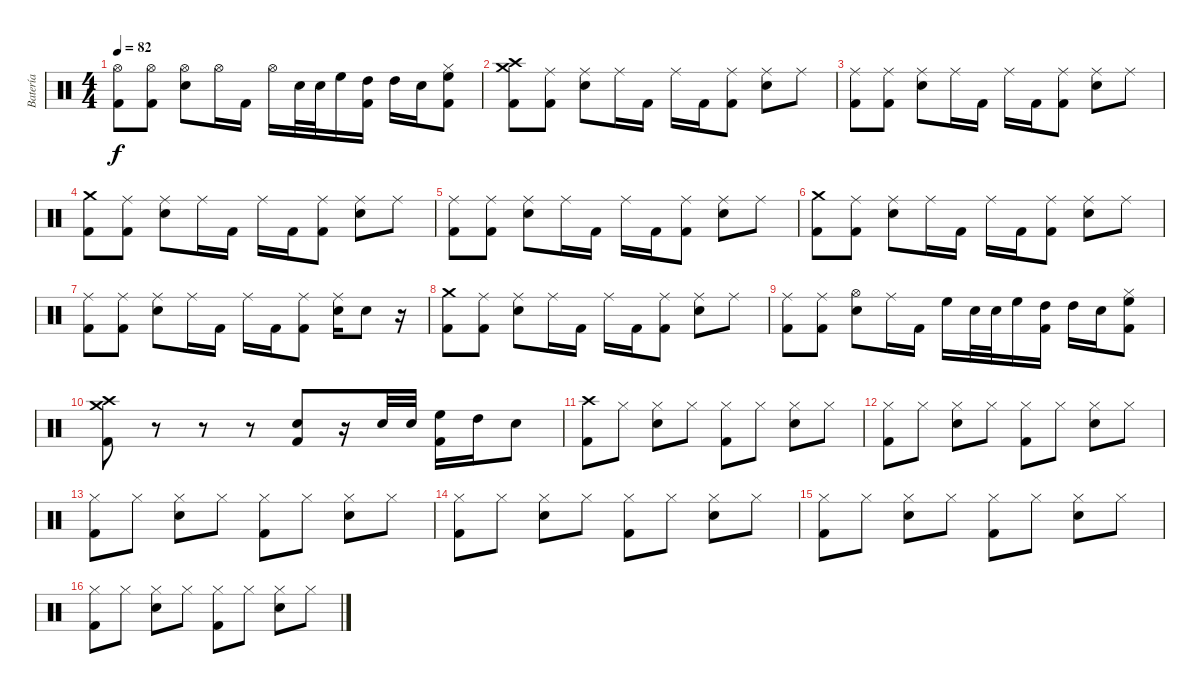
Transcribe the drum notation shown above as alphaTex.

\track ("Batería" "Batería") {instrument percussion}
\staff {score}
\articulation defaults
\ts (4 4)
\tempo 82
\clef neutral
\ks c
("Hi-Hat (open)" "Kick (hit) 2").8{dy f} ("Hi-Hat (open)" "Kick (hit) 2").8 ("Hi-Hat (open)" "Electric Snare (hit)").8 "Hi-Hat (open)".16 "Kick (hit) 2".16 "Hi-Hat (open)".16 "Electric Snare (hit)".32 "Electric Snare (hit)".32 "High Floor Tom (hit)".16 ("Kick (hit) 2" "High Tom (hit)").16 "High Tom (hit)".16 "Electric Snare (hit)".16 ("Kick (hit) 2" "High Floor Tom (hit)" "Hi-Hat (closed)").8 |
("Crash medium (hit)" "Crash high (hit)" "Kick (hit) 2").8 ("Ride (middle)" "Kick (hit) 2").8 ("Ride (middle)" "Electric Snare (hit)").8 "Ride (middle)".16 "Kick (hit) 2".16 "Ride (middle)".16 "Kick (hit) 2".16 ("Ride (middle)" "Kick (hit) 2").8 ("Ride (middle)" "Electric Snare (hit)").8 "Ride (middle)".8 |
("Ride (middle)" "Kick (hit) 2").8 ("Ride (middle)" "Kick (hit) 2").8 ("Ride (middle)" "Electric Snare (hit)").8 "Ride (middle)".16 "Kick (hit) 2".16 "Ride (middle)".16 "Kick (hit) 2".16 ("Ride (middle)" "Kick (hit) 2").8 ("Ride (middle)" "Electric Snare (hit)").8 "Ride (middle)".8 |
("Crash medium (hit)" "Kick (hit) 2").8 ("Ride (middle)" "Kick (hit) 2").8 ("Ride (middle)" "Electric Snare (hit)").8 "Ride (middle)".16 "Kick (hit) 2".16 "Ride (middle)".16 "Kick (hit) 2".16 ("Ride (middle)" "Kick (hit) 2").8 ("Ride (middle)" "Electric Snare (hit)").8 "Ride (middle)".8 |
("Ride (middle)" "Kick (hit) 2").8 ("Ride (middle)" "Kick (hit) 2").8 ("Ride (middle)" "Electric Snare (hit)").8 "Ride (middle)".16 "Kick (hit) 2".16 "Ride (middle)".16 "Kick (hit) 2".16 ("Ride (middle)" "Kick (hit) 2").8 ("Ride (middle)" "Electric Snare (hit)").8 "Ride (middle)".8 |
("Crash medium (hit)" "Kick (hit) 2").8 ("Ride (middle)" "Kick (hit) 2").8 ("Ride (middle)" "Electric Snare (hit)").8 "Ride (middle)".16 "Kick (hit) 2".16 "Ride (middle)".16 "Kick (hit) 2".16 ("Ride (middle)" "Kick (hit) 2").8 ("Ride (middle)" "Electric Snare (hit)").8 "Ride (middle)".8 |
("Ride (middle)" "Kick (hit) 2").8 ("Ride (middle)" "Kick (hit) 2").8 ("Ride (middle)" "Electric Snare (hit)").8 "Ride (middle)".16 "Kick (hit) 2".16 "Ride (middle)".16 "Kick (hit) 2".16 ("Ride (middle)" "Kick (hit) 2").8 ("Ride (middle)" "Electric Snare (hit)").16 "Electric Snare (hit)".8 r.16 |
("Crash medium (hit)" "Kick (hit) 2").8 ("Ride (middle)" "Kick (hit) 2").8 ("Ride (middle)" "Electric Snare (hit)").8 "Ride (middle)".16 "Kick (hit) 2".16 "Ride (middle)".16 "Kick (hit) 2".16 ("Ride (middle)" "Kick (hit) 2").8 ("Ride (middle)" "Electric Snare (hit)").8 "Ride (middle)".8 |
("Ride (middle)" "Kick (hit) 2").8 ("Ride (middle)" "Kick (hit) 2").8 ("Hi-Hat (open)" "Electric Snare (hit)").8 "Ride (middle)".16 "Kick (hit) 2".16 "High Floor Tom (hit)".16 "Electric Snare (hit)".32 "Electric Snare (hit)".32 "High Floor Tom (hit)".16 ("Kick (hit) 2" "High Tom (hit)").16 "High Tom (hit)".16 "Electric Snare (hit)".16 ("Kick (hit) 2" "High Floor Tom (hit)" "Hi-Hat (closed)").8 |
("Crash high (hit)" "Crash medium (hit)" "Kick (hit) 2").8 r.8 r.8 r.8 ("Kick (hit) 2" "Electric Snare (hit)").8 r.16 "Electric Snare (hit)".32 "Electric Snare (hit)".32 ("Kick (hit) 2" "High Floor Tom (hit)").16 "High Tom (hit)".16 "Electric Snare (hit)".8 |
("Crash high (hit)" "Kick (hit) 2").8 "Hi-Hat (closed)".8 ("Hi-Hat (closed)" "Electric Snare (hit)").8 "Hi-Hat (closed)".8 ("Hi-Hat (closed)" "Kick (hit) 2").8 "Hi-Hat (closed)".8 ("Hi-Hat (closed)" "Electric Snare (hit)").8 "Hi-Hat (closed)".8 |
("Hi-Hat (closed)" "Kick (hit) 2").8 "Hi-Hat (closed)".8 ("Hi-Hat (closed)" "Electric Snare (hit)").8 "Hi-Hat (closed)".8 ("Hi-Hat (closed)" "Kick (hit) 2").8 "Hi-Hat (closed)".8 ("Hi-Hat (closed)" "Electric Snare (hit)").8 "Hi-Hat (closed)".8 |
("Hi-Hat (closed)" "Kick (hit) 2").8 "Hi-Hat (closed)".8 ("Hi-Hat (closed)" "Electric Snare (hit)").8 "Hi-Hat (closed)".8 ("Hi-Hat (closed)" "Kick (hit) 2").8 "Hi-Hat (closed)".8 ("Hi-Hat (closed)" "Electric Snare (hit)").8 "Hi-Hat (closed)".8 |
("Hi-Hat (closed)" "Kick (hit) 2").8 "Hi-Hat (closed)".8 ("Hi-Hat (closed)" "Electric Snare (hit)").8 "Hi-Hat (closed)".8 ("Hi-Hat (closed)" "Kick (hit) 2").8 "Hi-Hat (closed)".8 ("Hi-Hat (closed)" "Electric Snare (hit)").8 "Hi-Hat (closed)".8 |
("Hi-Hat (closed)" "Kick (hit) 2").8 "Hi-Hat (closed)".8 ("Hi-Hat (closed)" "Electric Snare (hit)").8 "Hi-Hat (closed)".8 ("Hi-Hat (closed)" "Kick (hit) 2").8 "Hi-Hat (closed)".8 ("Hi-Hat (closed)" "Electric Snare (hit)").8 "Hi-Hat (closed)".8 |
("Hi-Hat (closed)" "Kick (hit) 2").8 "Hi-Hat (closed)".8 ("Hi-Hat (closed)" "Electric Snare (hit)").8 "Hi-Hat (closed)".8 ("Hi-Hat (closed)" "Kick (hit) 2").8 "Hi-Hat (closed)".8 ("Hi-Hat (closed)" "Electric Snare (hit)").8 "Hi-Hat (closed)".8
